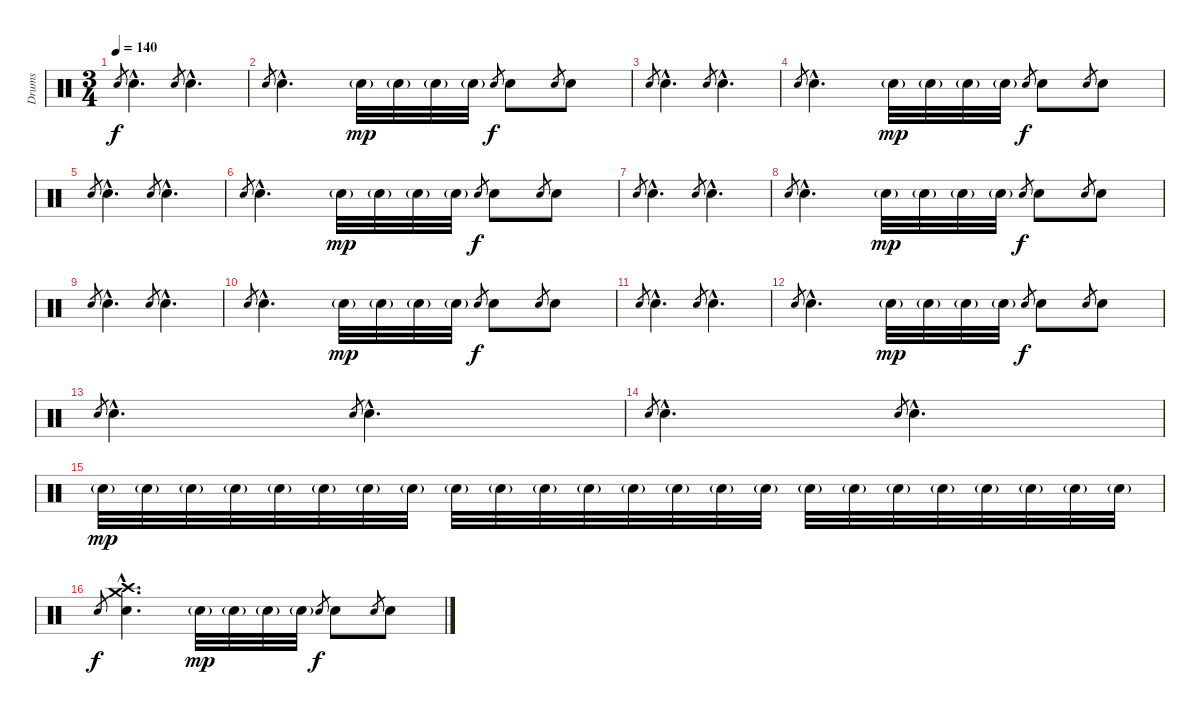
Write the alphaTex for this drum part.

\track ("Drums" "Drums") {instrument percussion}
\staff {score}
\articulation defaults
\ts (3 4)
\tempo 140
\clef neutral
\ks c "Snare (hit) 2".8{gr dy f} "Snare (hit) 2"{hac}.4{d} "Snare (hit) 2".8{gr} "Snare (hit) 2"{hac}.4{d}
|
"Snare (hit) 2".8{gr} "Snare (hit) 2"{hac}.4{d} "Snare (hit) 2"{g}.32{dy mp} "Snare (hit) 2"{g}.32 "Snare (hit) 2"{g}.32 "Snare (hit) 2"{g}.32 "Snare (hit) 2".8{gr dy f} "Snare (hit) 2".8 "Snare (hit) 2".8{gr} "Snare (hit) 2".8 |
"Snare (hit) 2".8{gr} "Snare (hit) 2"{hac}.4{d} "Snare (hit) 2".8{gr} "Snare (hit) 2"{hac}.4{d} |
"Snare (hit) 2".8{gr} "Snare (hit) 2"{hac}.4{d} "Snare (hit) 2"{g}.32{dy mp} "Snare (hit) 2"{g}.32 "Snare (hit) 2"{g}.32 "Snare (hit) 2"{g}.32 "Snare (hit) 2".8{gr dy f} "Snare (hit) 2".8 "Snare (hit) 2".8{gr} "Snare (hit) 2".8 |
"Snare (hit) 2".8{gr} "Snare (hit) 2"{hac}.4{d} "Snare (hit) 2".8{gr} "Snare (hit) 2"{hac}.4{d} |
"Snare (hit) 2".8{gr} "Snare (hit) 2"{hac}.4{d} "Snare (hit) 2"{g}.32{dy mp} "Snare (hit) 2"{g}.32 "Snare (hit) 2"{g}.32 "Snare (hit) 2"{g}.32 "Snare (hit) 2".8{gr dy f} "Snare (hit) 2".8 "Snare (hit) 2".8{gr} "Snare (hit) 2".8 |
"Snare (hit) 2".8{gr} "Snare (hit) 2"{hac}.4{d} "Snare (hit) 2".8{gr} "Snare (hit) 2"{hac}.4{d} |
"Snare (hit) 2".8{gr} "Snare (hit) 2"{hac}.4{d} "Snare (hit) 2"{g}.32{dy mp} "Snare (hit) 2"{g}.32 "Snare (hit) 2"{g}.32 "Snare (hit) 2"{g}.32 "Snare (hit) 2".8{gr dy f} "Snare (hit) 2".8 "Snare (hit) 2".8{gr} "Snare (hit) 2".8 |
"Snare (hit) 2".8{gr} "Snare (hit) 2"{hac}.4{d} "Snare (hit) 2".8{gr} "Snare (hit) 2"{hac}.4{d} |
"Snare (hit) 2".8{gr} "Snare (hit) 2"{hac}.4{d} "Snare (hit) 2"{g}.32{dy mp} "Snare (hit) 2"{g}.32 "Snare (hit) 2"{g}.32 "Snare (hit) 2"{g}.32 "Snare (hit) 2".8{gr dy f} "Snare (hit) 2".8 "Snare (hit) 2".8{gr} "Snare (hit) 2".8 |
"Snare (hit) 2".8{gr} "Snare (hit) 2"{hac}.4{d} "Snare (hit) 2".8{gr} "Snare (hit) 2"{hac}.4{d} |
"Snare (hit) 2".8{gr} "Snare (hit) 2"{hac}.4{d} "Snare (hit) 2"{g}.32{dy mp} "Snare (hit) 2"{g}.32 "Snare (hit) 2"{g}.32 "Snare (hit) 2"{g}.32 "Snare (hit) 2".8{gr dy f} "Snare (hit) 2".8 "Snare (hit) 2".8{gr} "Snare (hit) 2".8 |
"Snare (hit) 2".8{gr} "Snare (hit) 2"{hac}.4{d} "Snare (hit) 2".8{gr} "Snare (hit) 2"{hac}.4{d} |
"Snare (hit) 2".8{gr} "Snare (hit) 2"{hac}.4{d} "Snare (hit) 2".8{gr} "Snare (hit) 2"{hac}.4{d} |
"Snare (hit) 2"{g}.32{dy mp} "Snare (hit) 2"{g}.32 "Snare (hit) 2"{g}.32 "Snare (hit) 2"{g}.32 "Snare (hit) 2"{g}.32 "Snare (hit) 2"{g}.32 "Snare (hit) 2"{g}.32 "Snare (hit) 2"{g}.32 "Snare (hit) 2"{g}.32 "Snare (hit) 2"{g}.32 "Snare (hit) 2"{g}.32 "Snare (hit) 2"{g}.32 "Snare (hit) 2"{g}.32 "Snare (hit) 2"{g}.32 "Snare (hit) 2"{g}.32 "Snare (hit) 2"{g}.32 "Snare (hit) 2"{g}.32 "Snare (hit) 2"{g}.32 "Snare (hit) 2"{g}.32 "Snare (hit) 2"{g}.32 "Snare (hit) 2"{g}.32 "Snare (hit) 2"{g}.32 "Snare (hit) 2"{g}.32 "Snare (hit) 2"{g}.32 |
"Snare (hit) 2".8{gr dy f} ("Crash high (hit)"{hac} "Crash medium (hit)"{hac} "Snare (hit) 2"{hac}).4{d} "Snare (hit) 2"{g}.32{dy mp} "Snare (hit) 2"{g}.32 "Snare (hit) 2"{g}.32 "Snare (hit) 2"{g}.32 "Snare (hit) 2".8{gr dy f} "Snare (hit) 2".8 "Snare (hit) 2".8{gr} "Snare (hit) 2".8
